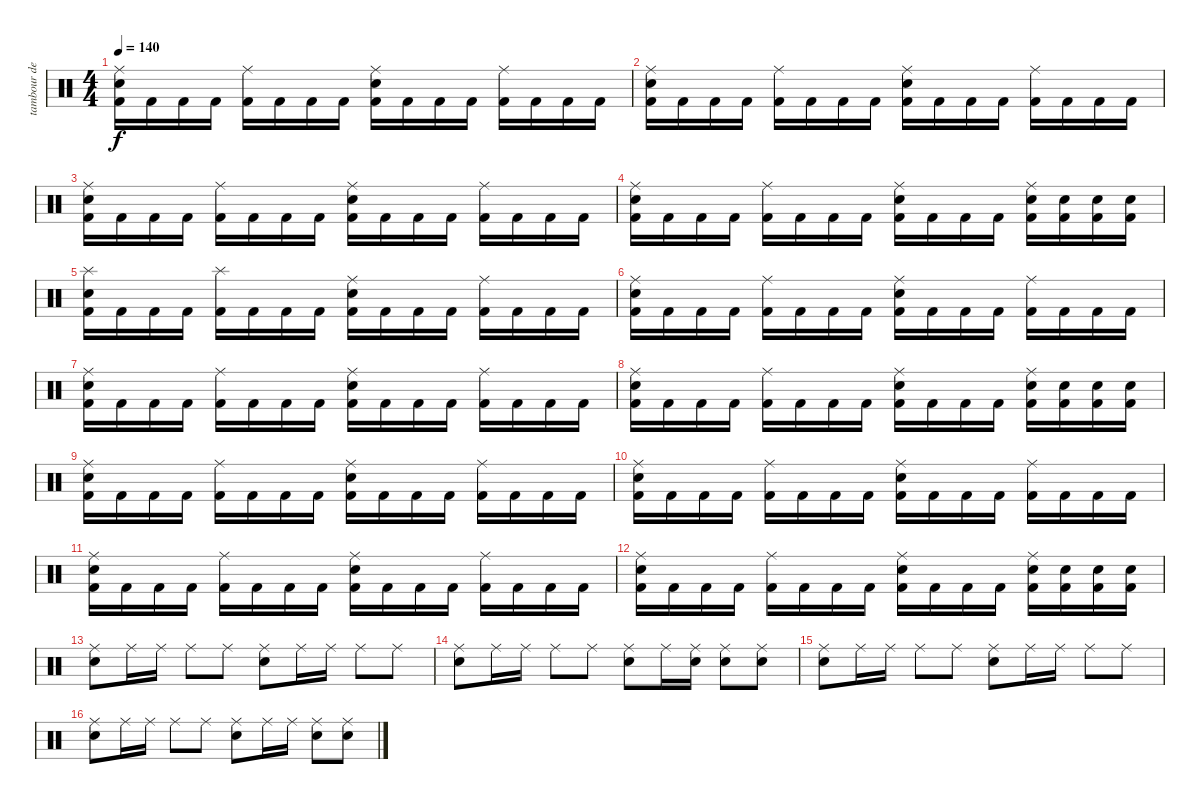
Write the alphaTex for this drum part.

\track ("tambour de guerre" "tambour de") {instrument percussion}
\staff {score}
\articulation defaults
\ts (4 4)
\tempo 140
\clef neutral
\ks c
("Kick (hit) 2" "Snare (hit) 2" "Ride (middle)").16{dy f} "Kick (hit) 2".16 "Kick (hit) 2".16 "Kick (hit) 2".16 ("Kick (hit) 2" "Ride (middle)").16 "Kick (hit) 2".16 "Kick (hit) 2".16 "Kick (hit) 2".16 ("Kick (hit) 2" "Snare (hit) 2" "Ride (middle)").16 "Kick (hit) 2".16 "Kick (hit) 2".16 "Kick (hit) 2".16 ("Kick (hit) 2" "Ride (middle)").16 "Kick (hit) 2".16 "Kick (hit) 2".16 "Kick (hit) 2".16 |
("Kick (hit) 2" "Snare (hit) 2" "Ride (middle)").16 "Kick (hit) 2".16 "Kick (hit) 2".16 "Kick (hit) 2".16 ("Kick (hit) 2" "Ride (middle)").16 "Kick (hit) 2".16 "Kick (hit) 2".16 "Kick (hit) 2".16 ("Kick (hit) 2" "Snare (hit) 2" "Ride (middle)").16 "Kick (hit) 2".16 "Kick (hit) 2".16 "Kick (hit) 2".16 ("Kick (hit) 2" "Ride (middle)").16 "Kick (hit) 2".16 "Kick (hit) 2".16 "Kick (hit) 2".16 |
("Kick (hit) 2" "Snare (hit) 2" "Ride (middle)").16 "Kick (hit) 2".16 "Kick (hit) 2".16 "Kick (hit) 2".16 ("Kick (hit) 2" "Ride (middle)").16 "Kick (hit) 2".16 "Kick (hit) 2".16 "Kick (hit) 2".16 ("Kick (hit) 2" "Snare (hit) 2" "Ride (middle)").16 "Kick (hit) 2".16 "Kick (hit) 2".16 "Kick (hit) 2".16 ("Kick (hit) 2" "Ride (middle)").16 "Kick (hit) 2".16 "Kick (hit) 2".16 "Kick (hit) 2".16 |
("Kick (hit) 2" "Snare (hit) 2" "Ride (middle)").16 "Kick (hit) 2".16 "Kick (hit) 2".16 "Kick (hit) 2".16 ("Kick (hit) 2" "Ride (middle)").16 "Kick (hit) 2".16 "Kick (hit) 2".16 "Kick (hit) 2".16 ("Kick (hit) 2" "Snare (hit) 2" "Ride (middle)").16 "Kick (hit) 2".16 "Kick (hit) 2".16 "Kick (hit) 2".16 ("Kick (hit) 2" "Snare (hit) 2" "Ride (middle)").16 ("Kick (hit) 2" "Snare (hit) 2").16 ("Kick (hit) 2" "Electric Snare (hit)").16 ("Kick (hit) 2" "Electric Snare (hit)").16 |
("Kick (hit) 2" "Snare (hit) 2" "Splash (hit)").16 "Kick (hit) 2".16 "Kick (hit) 2".16 "Kick (hit) 2".16 ("Kick (hit) 2" "Splash (hit)").16 "Kick (hit) 2".16 "Kick (hit) 2".16 "Kick (hit) 2".16 ("Kick (hit) 2" "Snare (hit) 2" "Ride (middle)").16 "Kick (hit) 2".16 "Kick (hit) 2".16 "Kick (hit) 2".16 ("Kick (hit) 2" "Ride (middle)").16 "Kick (hit) 2".16 "Kick (hit) 2".16 "Kick (hit) 2".16 |
("Kick (hit) 2" "Snare (hit) 2" "Ride (middle)").16 "Kick (hit) 2".16 "Kick (hit) 2".16 "Kick (hit) 2".16 ("Kick (hit) 2" "Ride (middle)").16 "Kick (hit) 2".16 "Kick (hit) 2".16 "Kick (hit) 2".16 ("Kick (hit) 2" "Snare (hit) 2" "Ride (middle)").16 "Kick (hit) 2".16 "Kick (hit) 2".16 "Kick (hit) 2".16 ("Kick (hit) 2" "Ride (middle)").16 "Kick (hit) 2".16 "Kick (hit) 2".16 "Kick (hit) 2".16 |
("Kick (hit) 2" "Snare (hit) 2" "Ride (middle)").16 "Kick (hit) 2".16 "Kick (hit) 2".16 "Kick (hit) 2".16 ("Kick (hit) 2" "Ride (middle)").16 "Kick (hit) 2".16 "Kick (hit) 2".16 "Kick (hit) 2".16 ("Kick (hit) 2" "Snare (hit) 2" "Ride (middle)").16 "Kick (hit) 2".16 "Kick (hit) 2".16 "Kick (hit) 2".16 ("Kick (hit) 2" "Ride (middle)").16 "Kick (hit) 2".16 "Kick (hit) 2".16 "Kick (hit) 2".16 |
("Kick (hit) 2" "Snare (hit) 2" "Ride (middle)").16 "Kick (hit) 2".16 "Kick (hit) 2".16 "Kick (hit) 2".16 ("Kick (hit) 2" "Ride (middle)").16 "Kick (hit) 2".16 "Kick (hit) 2".16 "Kick (hit) 2".16 ("Kick (hit) 2" "Snare (hit) 2" "Ride (middle)").16 "Kick (hit) 2".16 "Kick (hit) 2".16 "Kick (hit) 2".16 ("Kick (hit) 2" "Snare (hit) 2" "Ride (middle)").16 ("Kick (hit) 2" "Snare (hit) 2").16 ("Kick (hit) 2" "Electric Snare (hit)").16 ("Kick (hit) 2" "Electric Snare (hit)").16 |
("Kick (hit) 2" "Snare (hit) 2" "Ride (middle)").16 "Kick (hit) 2".16 "Kick (hit) 2".16 "Kick (hit) 2".16 ("Kick (hit) 2" "Ride (middle)").16 "Kick (hit) 2".16 "Kick (hit) 2".16 "Kick (hit) 2".16 ("Kick (hit) 2" "Snare (hit) 2" "Ride (middle)").16 "Kick (hit) 2".16 "Kick (hit) 2".16 "Kick (hit) 2".16 ("Kick (hit) 2" "Ride (middle)").16 "Kick (hit) 2".16 "Kick (hit) 2".16 "Kick (hit) 2".16 |
("Kick (hit) 2" "Snare (hit) 2" "Ride (middle)").16 "Kick (hit) 2".16 "Kick (hit) 2".16 "Kick (hit) 2".16 ("Kick (hit) 2" "Ride (middle)").16 "Kick (hit) 2".16 "Kick (hit) 2".16 "Kick (hit) 2".16 ("Kick (hit) 2" "Snare (hit) 2" "Ride (middle)").16 "Kick (hit) 2".16 "Kick (hit) 2".16 "Kick (hit) 2".16 ("Kick (hit) 2" "Ride (middle)").16 "Kick (hit) 2".16 "Kick (hit) 2".16 "Kick (hit) 2".16 |
("Kick (hit) 2" "Snare (hit) 2" "Ride (middle)").16 "Kick (hit) 2".16 "Kick (hit) 2".16 "Kick (hit) 2".16 ("Kick (hit) 2" "Ride (middle)").16 "Kick (hit) 2".16 "Kick (hit) 2".16 "Kick (hit) 2".16 ("Kick (hit) 2" "Snare (hit) 2" "Ride (middle)").16 "Kick (hit) 2".16 "Kick (hit) 2".16 "Kick (hit) 2".16 ("Kick (hit) 2" "Ride (middle)").16 "Kick (hit) 2".16 "Kick (hit) 2".16 "Kick (hit) 2".16 |
("Kick (hit) 2" "Snare (hit) 2" "Ride (middle)").16 "Kick (hit) 2".16 "Kick (hit) 2".16 "Kick (hit) 2".16 ("Kick (hit) 2" "Ride (middle)").16 "Kick (hit) 2".16 "Kick (hit) 2".16 "Kick (hit) 2".16 ("Kick (hit) 2" "Snare (hit) 2" "Ride (middle)").16 "Kick (hit) 2".16 "Kick (hit) 2".16 "Kick (hit) 2".16 ("Kick (hit) 2" "Snare (hit) 2" "Ride (middle)").16 ("Kick (hit) 2" "Snare (hit) 2").16 ("Kick (hit) 2" "Electric Snare (hit)").16 ("Kick (hit) 2" "Electric Snare (hit)").16 |
("Snare (hit) 2" "Ride (middle)").8 "Ride (middle)".16 "Ride (middle)".16 "Ride (middle)".8 "Ride (middle)".8 ("Snare (hit) 2" "Ride (middle)").8 "Ride (middle)".16 "Ride (middle)".16 "Ride (middle)".8 "Ride (middle)".8 |
("Snare (hit) 2" "Ride (middle)").8 "Ride (middle)".16 "Ride (middle)".16 "Ride (middle)".8 "Ride (middle)".8 ("Snare (hit) 2" "Ride (middle)").8 "Ride (middle)".16 ("Snare (hit) 2" "Ride (middle)").16 ("Snare (hit) 2" "Ride (middle)").8 ("Snare (hit) 2" "Ride (middle)").8 |
("Snare (hit) 2" "Ride (middle)").8 "Ride (middle)".16 "Ride (middle)".16 "Ride (middle)".8 "Ride (middle)".8 ("Snare (hit) 2" "Ride (middle)").8 "Ride (middle)".16 "Ride (middle)".16 "Ride (middle)".8 "Ride (middle)".8 |
("Snare (hit) 2" "Ride (middle)").8 "Ride (middle)".16 "Ride (middle)".16 "Ride (middle)".8 "Ride (middle)".8 ("Snare (hit) 2" "Ride (middle)").8 "Ride (middle)".16 "Ride (middle)".16 ("Snare (hit) 2" "Ride (middle)").8 ("Snare (hit) 2" "Ride (middle)").8
